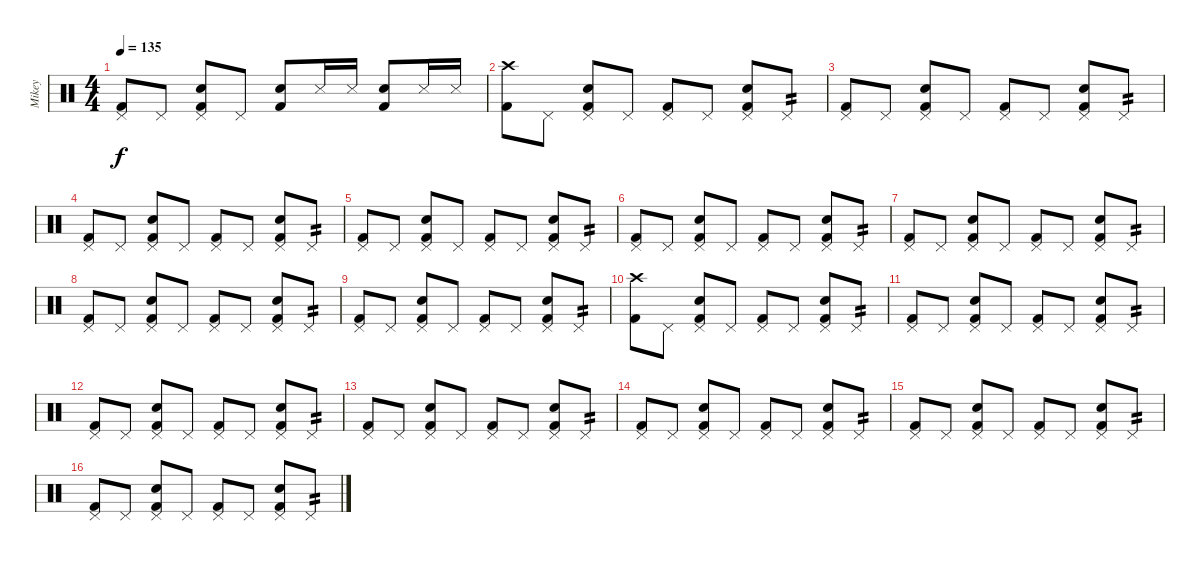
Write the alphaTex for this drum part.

\track ("Mikey" "Mikey") {instrument percussion}
\staff {score}
\articulation defaults
\ts (4 4)
\tempo 135
\clef neutral
\ks c
("Pedal Hi-Hat (hit)" "Kick (hit) 2").8{dy f} "Pedal Hi-Hat (hit)".8 ("Pedal Hi-Hat (hit)" "Snare (hit) 2" "Kick (hit) 2").8 "Pedal Hi-Hat (hit)".8 ("Snare (hit) 2" "Kick (hit) 2").8 "Snare (side stick) 3".16 "Snare (side stick) 3".16 ("Snare (hit) 2" "Kick (hit) 2").8 "Snare (side stick) 3".16 "Snare (side stick) 3".16 |
("Crash high (hit)" "Kick (hit) 2").8 "Pedal Hi-Hat (hit)".8 ("Pedal Hi-Hat (hit)" "Snare (hit) 2" "Kick (hit) 2").8 "Pedal Hi-Hat (hit)".8 ("Pedal Hi-Hat (hit)" "Kick (hit) 2").8 "Pedal Hi-Hat (hit)".8 ("Pedal Hi-Hat (hit)" "Snare (hit) 2" "Kick (hit) 2").8 "Pedal Hi-Hat (hit)".8{tp 2} |
("Pedal Hi-Hat (hit)" "Kick (hit) 2").8 "Pedal Hi-Hat (hit)".8 ("Pedal Hi-Hat (hit)" "Snare (hit) 2" "Kick (hit) 2").8 "Pedal Hi-Hat (hit)".8 ("Pedal Hi-Hat (hit)" "Kick (hit) 2").8 "Pedal Hi-Hat (hit)".8 ("Pedal Hi-Hat (hit)" "Snare (hit) 2" "Kick (hit) 2").8 "Pedal Hi-Hat (hit)".8{tp 2} |
("Pedal Hi-Hat (hit)" "Kick (hit) 2").8 "Pedal Hi-Hat (hit)".8 ("Pedal Hi-Hat (hit)" "Snare (hit) 2" "Kick (hit) 2").8 "Pedal Hi-Hat (hit)".8 ("Pedal Hi-Hat (hit)" "Kick (hit) 2").8 "Pedal Hi-Hat (hit)".8 ("Pedal Hi-Hat (hit)" "Snare (hit) 2" "Kick (hit) 2").8 "Pedal Hi-Hat (hit)".8{tp 2} |
("Pedal Hi-Hat (hit)" "Kick (hit) 2").8 "Pedal Hi-Hat (hit)".8 ("Pedal Hi-Hat (hit)" "Snare (hit) 2" "Kick (hit) 2").8 "Pedal Hi-Hat (hit)".8 ("Pedal Hi-Hat (hit)" "Kick (hit) 2").8 "Pedal Hi-Hat (hit)".8 ("Pedal Hi-Hat (hit)" "Snare (hit) 2" "Kick (hit) 2").8 "Pedal Hi-Hat (hit)".8{tp 2} |
("Pedal Hi-Hat (hit)" "Kick (hit) 2").8 "Pedal Hi-Hat (hit)".8 ("Pedal Hi-Hat (hit)" "Snare (hit) 2" "Kick (hit) 2").8 "Pedal Hi-Hat (hit)".8 ("Pedal Hi-Hat (hit)" "Kick (hit) 2").8 "Pedal Hi-Hat (hit)".8 ("Pedal Hi-Hat (hit)" "Snare (hit) 2" "Kick (hit) 2").8 "Pedal Hi-Hat (hit)".8{tp 2} |
("Pedal Hi-Hat (hit)" "Kick (hit) 2").8 "Pedal Hi-Hat (hit)".8 ("Pedal Hi-Hat (hit)" "Snare (hit) 2" "Kick (hit) 2").8 "Pedal Hi-Hat (hit)".8 ("Pedal Hi-Hat (hit)" "Kick (hit) 2").8 "Pedal Hi-Hat (hit)".8 ("Pedal Hi-Hat (hit)" "Snare (hit) 2" "Kick (hit) 2").8 "Pedal Hi-Hat (hit)".8{tp 2} |
("Pedal Hi-Hat (hit)" "Kick (hit) 2").8 "Pedal Hi-Hat (hit)".8 ("Pedal Hi-Hat (hit)" "Snare (hit) 2" "Kick (hit) 2").8 "Pedal Hi-Hat (hit)".8 ("Pedal Hi-Hat (hit)" "Kick (hit) 2").8 "Pedal Hi-Hat (hit)".8 ("Pedal Hi-Hat (hit)" "Snare (hit) 2" "Kick (hit) 2").8 "Pedal Hi-Hat (hit)".8{tp 2} |
("Pedal Hi-Hat (hit)" "Kick (hit) 2").8 "Pedal Hi-Hat (hit)".8 ("Pedal Hi-Hat (hit)" "Snare (hit) 2" "Kick (hit) 2").8 "Pedal Hi-Hat (hit)".8 ("Pedal Hi-Hat (hit)" "Kick (hit) 2").8 "Pedal Hi-Hat (hit)".8 ("Pedal Hi-Hat (hit)" "Snare (hit) 2" "Kick (hit) 2").8 "Pedal Hi-Hat (hit)".8{tp 2} |
("Crash high (hit)" "Kick (hit) 2").8 "Pedal Hi-Hat (hit)".8 ("Pedal Hi-Hat (hit)" "Snare (hit) 2" "Kick (hit) 2").8 "Pedal Hi-Hat (hit)".8 ("Pedal Hi-Hat (hit)" "Kick (hit) 2").8 "Pedal Hi-Hat (hit)".8 ("Pedal Hi-Hat (hit)" "Snare (hit) 2" "Kick (hit) 2").8 "Pedal Hi-Hat (hit)".8{tp 2} |
("Pedal Hi-Hat (hit)" "Kick (hit) 2").8 "Pedal Hi-Hat (hit)".8 ("Pedal Hi-Hat (hit)" "Snare (hit) 2" "Kick (hit) 2").8 "Pedal Hi-Hat (hit)".8 ("Pedal Hi-Hat (hit)" "Kick (hit) 2").8 "Pedal Hi-Hat (hit)".8 ("Pedal Hi-Hat (hit)" "Snare (hit) 2" "Kick (hit) 2").8 "Pedal Hi-Hat (hit)".8{tp 2} |
("Pedal Hi-Hat (hit)" "Kick (hit) 2").8 "Pedal Hi-Hat (hit)".8 ("Pedal Hi-Hat (hit)" "Snare (hit) 2" "Kick (hit) 2").8 "Pedal Hi-Hat (hit)".8 ("Pedal Hi-Hat (hit)" "Kick (hit) 2").8 "Pedal Hi-Hat (hit)".8 ("Pedal Hi-Hat (hit)" "Snare (hit) 2" "Kick (hit) 2").8 "Pedal Hi-Hat (hit)".8{tp 2} |
("Pedal Hi-Hat (hit)" "Kick (hit) 2").8 "Pedal Hi-Hat (hit)".8 ("Pedal Hi-Hat (hit)" "Snare (hit) 2" "Kick (hit) 2").8 "Pedal Hi-Hat (hit)".8 ("Pedal Hi-Hat (hit)" "Kick (hit) 2").8 "Pedal Hi-Hat (hit)".8 ("Pedal Hi-Hat (hit)" "Snare (hit) 2" "Kick (hit) 2").8 "Pedal Hi-Hat (hit)".8{tp 2} |
("Pedal Hi-Hat (hit)" "Kick (hit) 2").8 "Pedal Hi-Hat (hit)".8 ("Pedal Hi-Hat (hit)" "Snare (hit) 2" "Kick (hit) 2").8 "Pedal Hi-Hat (hit)".8 ("Pedal Hi-Hat (hit)" "Kick (hit) 2").8 "Pedal Hi-Hat (hit)".8 ("Pedal Hi-Hat (hit)" "Snare (hit) 2" "Kick (hit) 2").8 "Pedal Hi-Hat (hit)".8{tp 2} |
("Pedal Hi-Hat (hit)" "Kick (hit) 2").8 "Pedal Hi-Hat (hit)".8 ("Pedal Hi-Hat (hit)" "Snare (hit) 2" "Kick (hit) 2").8 "Pedal Hi-Hat (hit)".8 ("Pedal Hi-Hat (hit)" "Kick (hit) 2").8 "Pedal Hi-Hat (hit)".8 ("Pedal Hi-Hat (hit)" "Snare (hit) 2" "Kick (hit) 2").8 "Pedal Hi-Hat (hit)".8{tp 2} |
("Pedal Hi-Hat (hit)" "Kick (hit) 2").8 "Pedal Hi-Hat (hit)".8 ("Pedal Hi-Hat (hit)" "Snare (hit) 2" "Kick (hit) 2").8 "Pedal Hi-Hat (hit)".8 ("Pedal Hi-Hat (hit)" "Kick (hit) 2").8 "Pedal Hi-Hat (hit)".8 ("Pedal Hi-Hat (hit)" "Snare (hit) 2" "Kick (hit) 2").8 "Pedal Hi-Hat (hit)".8{tp 2}
